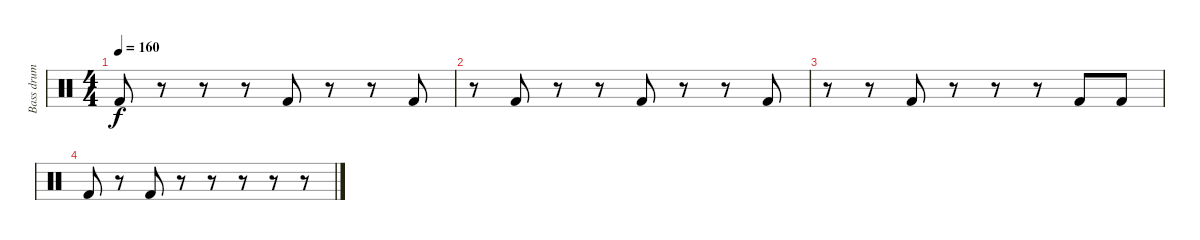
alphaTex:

\track ("Bass drum" "Bass drum") {instrument percussion}
\staff {score}
\articulation defaults
\ts (4 4)
\tempo 160
\clef neutral
\ks c "Kick (hit) 2".8{dy f}
r.8 r.8 r.8 "Kick (hit) 2".8 r.8 r.8 "Kick (hit) 2".8 |
r.8 "Kick (hit) 2".8 r.8 r.8 "Kick (hit) 2".8 r.8 r.8 "Kick (hit) 2".8 |
r.8 r.8 "Kick (hit) 2".8 r.8 r.8 r.8 "Kick (hit) 2".8 "Kick (hit) 2".8 |
"Kick (hit) 2".8 r.8 "Kick (hit) 2".8 r.8 r.8 r.8 r.8 r.8
